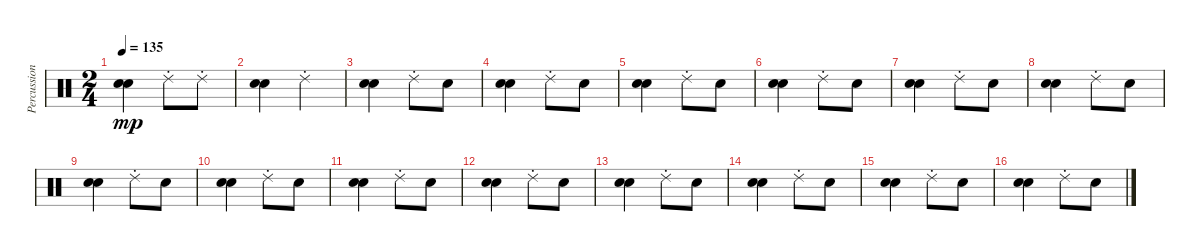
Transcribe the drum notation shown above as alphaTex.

\track ("Percussions" "Percussion") {instrument percussion}
\staff {score}
\articulation defaults
\ts (2 4)
\tempo 135
\clef neutral
\ks c
("Electric Snare (hit)" "Snare (hit) 2").4{dy mp} "Ride (choke) 2".8 "Ride (choke) 2".8 |
("Electric Snare (hit)" "Snare (hit) 2").4 "Ride (choke) 2".4 |
("Electric Snare (hit)" "Snare (hit) 2").4 "Ride (choke) 2".8 "Snare (hit) 2".8 |
("Electric Snare (hit)" "Snare (hit) 2").4 "Ride (choke) 2".8 "Snare (hit) 2".8 |
("Electric Snare (hit)" "Snare (hit) 2").4 "Ride (choke) 2".8 "Snare (hit) 2".8 |
("Electric Snare (hit)" "Snare (hit) 2").4 "Ride (choke) 2".8 "Snare (hit) 2".8 |
("Electric Snare (hit)" "Snare (hit) 2").4 "Ride (choke) 2".8 "Snare (hit) 2".8 |
("Electric Snare (hit)" "Snare (hit) 2").4 "Ride (choke) 2".8 "Snare (hit) 2".8 |
("Electric Snare (hit)" "Snare (hit) 2").4 "Ride (choke) 2".8 "Snare (hit) 2".8 |
("Electric Snare (hit)" "Snare (hit) 2").4 "Ride (choke) 2".8 "Snare (hit) 2".8 |
("Electric Snare (hit)" "Snare (hit) 2").4 "Ride (choke) 2".8 "Snare (hit) 2".8 |
("Electric Snare (hit)" "Snare (hit) 2").4 "Ride (choke) 2".8 "Snare (hit) 2".8 |
("Electric Snare (hit)" "Snare (hit) 2").4 "Ride (choke) 2".8 "Snare (hit) 2".8 |
("Electric Snare (hit)" "Snare (hit) 2").4 "Ride (choke) 2".8 "Snare (hit) 2".8 |
("Electric Snare (hit)" "Snare (hit) 2").4 "Ride (choke) 2".8 "Snare (hit) 2".8 |
("Electric Snare (hit)" "Snare (hit) 2").4 "Ride (choke) 2".8 "Snare (hit) 2".8
